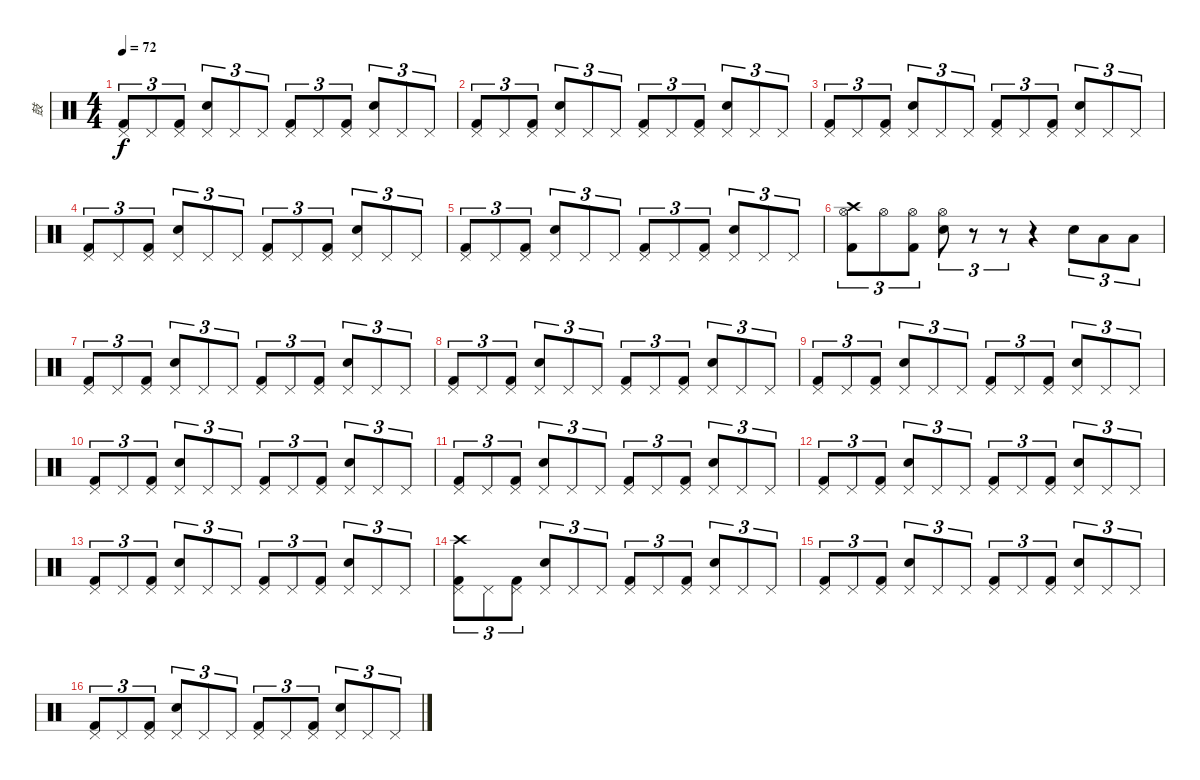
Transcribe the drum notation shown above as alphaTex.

\track ("鼓" "鼓") {instrument percussion}
\staff {score}
\articulation defaults
\ts (4 4)
\tempo 72
\clef neutral
\ks c
("Pedal Hi-Hat (hit)" "Kick (hit) 2").8{tu (3 2) dy f} "Pedal Hi-Hat (hit)".8{tu (3 2)} ("Pedal Hi-Hat (hit)" "Kick (hit) 2").8{tu (3 2)} ("Pedal Hi-Hat (hit)" "Electric Snare (hit)").8{tu (3 2)} "Pedal Hi-Hat (hit)".8{tu (3 2)} "Pedal Hi-Hat (hit)".8{tu (3 2)} ("Pedal Hi-Hat (hit)" "Kick (hit) 2").8{tu (3 2)} "Pedal Hi-Hat (hit)".8{tu (3 2)} ("Pedal Hi-Hat (hit)" "Kick (hit) 2").8{tu (3 2)} ("Pedal Hi-Hat (hit)" "Electric Snare (hit)").8{tu (3 2)} "Pedal Hi-Hat (hit)".8{tu (3 2)} "Pedal Hi-Hat (hit)".8{tu (3 2)} |
("Pedal Hi-Hat (hit)" "Kick (hit) 2").8{tu (3 2)} "Pedal Hi-Hat (hit)".8{tu (3 2)} ("Pedal Hi-Hat (hit)" "Kick (hit) 2").8{tu (3 2)} ("Pedal Hi-Hat (hit)" "Electric Snare (hit)").8{tu (3 2)} "Pedal Hi-Hat (hit)".8{tu (3 2)} "Pedal Hi-Hat (hit)".8{tu (3 2)} ("Pedal Hi-Hat (hit)" "Kick (hit) 2").8{tu (3 2)} "Pedal Hi-Hat (hit)".8{tu (3 2)} ("Pedal Hi-Hat (hit)" "Kick (hit) 2").8{tu (3 2)} ("Pedal Hi-Hat (hit)" "Electric Snare (hit)").8{tu (3 2)} "Pedal Hi-Hat (hit)".8{tu (3 2)} "Pedal Hi-Hat (hit)".8{tu (3 2)} |
("Pedal Hi-Hat (hit)" "Kick (hit) 2").8{tu (3 2)} "Pedal Hi-Hat (hit)".8{tu (3 2)} ("Pedal Hi-Hat (hit)" "Kick (hit) 2").8{tu (3 2)} ("Pedal Hi-Hat (hit)" "Electric Snare (hit)").8{tu (3 2)} "Pedal Hi-Hat (hit)".8{tu (3 2)} "Pedal Hi-Hat (hit)".8{tu (3 2)} ("Pedal Hi-Hat (hit)" "Kick (hit) 2").8{tu (3 2)} "Pedal Hi-Hat (hit)".8{tu (3 2)} ("Pedal Hi-Hat (hit)" "Kick (hit) 2").8{tu (3 2)} ("Pedal Hi-Hat (hit)" "Electric Snare (hit)").8{tu (3 2)} "Pedal Hi-Hat (hit)".8{tu (3 2)} "Pedal Hi-Hat (hit)".8{tu (3 2)} |
("Pedal Hi-Hat (hit)" "Kick (hit) 2").8{tu (3 2)} "Pedal Hi-Hat (hit)".8{tu (3 2)} ("Pedal Hi-Hat (hit)" "Kick (hit) 2").8{tu (3 2)} ("Pedal Hi-Hat (hit)" "Electric Snare (hit)").8{tu (3 2)} "Pedal Hi-Hat (hit)".8{tu (3 2)} "Pedal Hi-Hat (hit)".8{tu (3 2)} ("Pedal Hi-Hat (hit)" "Kick (hit) 2").8{tu (3 2)} "Pedal Hi-Hat (hit)".8{tu (3 2)} ("Pedal Hi-Hat (hit)" "Kick (hit) 2").8{tu (3 2)} ("Pedal Hi-Hat (hit)" "Electric Snare (hit)").8{tu (3 2)} "Pedal Hi-Hat (hit)".8{tu (3 2)} "Pedal Hi-Hat (hit)".8{tu (3 2)} |
("Pedal Hi-Hat (hit)" "Kick (hit) 2").8{tu (3 2)} "Pedal Hi-Hat (hit)".8{tu (3 2)} ("Pedal Hi-Hat (hit)" "Kick (hit) 2").8{tu (3 2)} ("Pedal Hi-Hat (hit)" "Electric Snare (hit)").8{tu (3 2)} "Pedal Hi-Hat (hit)".8{tu (3 2)} "Pedal Hi-Hat (hit)".8{tu (3 2)} ("Pedal Hi-Hat (hit)" "Kick (hit) 2").8{tu (3 2)} "Pedal Hi-Hat (hit)".8{tu (3 2)} ("Pedal Hi-Hat (hit)" "Kick (hit) 2").8{tu (3 2)} ("Pedal Hi-Hat (hit)" "Electric Snare (hit)").8{tu (3 2)} "Pedal Hi-Hat (hit)".8{tu (3 2)} "Pedal Hi-Hat (hit)".8{tu (3 2)} |
("Hi-Hat (open)" "Kick (hit) 2" "Crash high (hit)").8{tu (3 2)} "Hi-Hat (open)".8{tu (3 2)} ("Hi-Hat (open)" "Kick (hit) 2").8{tu (3 2)} ("Hi-Hat (open)" "Electric Snare (hit)").8{tu (3 2)} r.8{tu (3 2)} r.8{tu (3 2)} r.4 "Electric Snare (hit)".8{tu (3 2)} "Low Tom (hit)".8{tu (3 2)} "Low Tom (hit)".8{tu (3 2)} |
("Pedal Hi-Hat (hit)" "Kick (hit) 2").8{tu (3 2)} "Pedal Hi-Hat (hit)".8{tu (3 2)} ("Pedal Hi-Hat (hit)" "Kick (hit) 2").8{tu (3 2)} ("Pedal Hi-Hat (hit)" "Electric Snare (hit)").8{tu (3 2)} "Pedal Hi-Hat (hit)".8{tu (3 2)} "Pedal Hi-Hat (hit)".8{tu (3 2)} ("Pedal Hi-Hat (hit)" "Kick (hit) 2").8{tu (3 2)} "Pedal Hi-Hat (hit)".8{tu (3 2)} ("Pedal Hi-Hat (hit)" "Kick (hit) 2").8{tu (3 2)} ("Pedal Hi-Hat (hit)" "Electric Snare (hit)").8{tu (3 2)} "Pedal Hi-Hat (hit)".8{tu (3 2)} "Pedal Hi-Hat (hit)".8{tu (3 2)} |
("Pedal Hi-Hat (hit)" "Kick (hit) 2").8{tu (3 2)} "Pedal Hi-Hat (hit)".8{tu (3 2)} ("Pedal Hi-Hat (hit)" "Kick (hit) 2").8{tu (3 2)} ("Pedal Hi-Hat (hit)" "Electric Snare (hit)").8{tu (3 2)} "Pedal Hi-Hat (hit)".8{tu (3 2)} "Pedal Hi-Hat (hit)".8{tu (3 2)} ("Pedal Hi-Hat (hit)" "Kick (hit) 2").8{tu (3 2)} "Pedal Hi-Hat (hit)".8{tu (3 2)} ("Pedal Hi-Hat (hit)" "Kick (hit) 2").8{tu (3 2)} ("Pedal Hi-Hat (hit)" "Electric Snare (hit)").8{tu (3 2)} "Pedal Hi-Hat (hit)".8{tu (3 2)} "Pedal Hi-Hat (hit)".8{tu (3 2)} |
("Pedal Hi-Hat (hit)" "Kick (hit) 2").8{tu (3 2)} "Pedal Hi-Hat (hit)".8{tu (3 2)} ("Pedal Hi-Hat (hit)" "Kick (hit) 2").8{tu (3 2)} ("Pedal Hi-Hat (hit)" "Electric Snare (hit)").8{tu (3 2)} "Pedal Hi-Hat (hit)".8{tu (3 2)} "Pedal Hi-Hat (hit)".8{tu (3 2)} ("Pedal Hi-Hat (hit)" "Kick (hit) 2").8{tu (3 2)} "Pedal Hi-Hat (hit)".8{tu (3 2)} ("Pedal Hi-Hat (hit)" "Kick (hit) 2").8{tu (3 2)} ("Pedal Hi-Hat (hit)" "Electric Snare (hit)").8{tu (3 2)} "Pedal Hi-Hat (hit)".8{tu (3 2)} "Pedal Hi-Hat (hit)".8{tu (3 2)} |
("Pedal Hi-Hat (hit)" "Kick (hit) 2").8{tu (3 2)} "Pedal Hi-Hat (hit)".8{tu (3 2)} ("Pedal Hi-Hat (hit)" "Kick (hit) 2").8{tu (3 2)} ("Pedal Hi-Hat (hit)" "Electric Snare (hit)").8{tu (3 2)} "Pedal Hi-Hat (hit)".8{tu (3 2)} "Pedal Hi-Hat (hit)".8{tu (3 2)} ("Pedal Hi-Hat (hit)" "Kick (hit) 2").8{tu (3 2)} "Pedal Hi-Hat (hit)".8{tu (3 2)} ("Pedal Hi-Hat (hit)" "Kick (hit) 2").8{tu (3 2)} ("Pedal Hi-Hat (hit)" "Electric Snare (hit)").8{tu (3 2)} "Pedal Hi-Hat (hit)".8{tu (3 2)} "Pedal Hi-Hat (hit)".8{tu (3 2)} |
("Pedal Hi-Hat (hit)" "Kick (hit) 2").8{tu (3 2)} "Pedal Hi-Hat (hit)".8{tu (3 2)} ("Pedal Hi-Hat (hit)" "Kick (hit) 2").8{tu (3 2)} ("Pedal Hi-Hat (hit)" "Electric Snare (hit)").8{tu (3 2)} "Pedal Hi-Hat (hit)".8{tu (3 2)} "Pedal Hi-Hat (hit)".8{tu (3 2)} ("Pedal Hi-Hat (hit)" "Kick (hit) 2").8{tu (3 2)} "Pedal Hi-Hat (hit)".8{tu (3 2)} ("Pedal Hi-Hat (hit)" "Kick (hit) 2").8{tu (3 2)} ("Pedal Hi-Hat (hit)" "Electric Snare (hit)").8{tu (3 2)} "Pedal Hi-Hat (hit)".8{tu (3 2)} "Pedal Hi-Hat (hit)".8{tu (3 2)} |
("Pedal Hi-Hat (hit)" "Kick (hit) 2").8{tu (3 2)} "Pedal Hi-Hat (hit)".8{tu (3 2)} ("Pedal Hi-Hat (hit)" "Kick (hit) 2").8{tu (3 2)} ("Pedal Hi-Hat (hit)" "Electric Snare (hit)").8{tu (3 2)} "Pedal Hi-Hat (hit)".8{tu (3 2)} "Pedal Hi-Hat (hit)".8{tu (3 2)} ("Pedal Hi-Hat (hit)" "Kick (hit) 2").8{tu (3 2)} "Pedal Hi-Hat (hit)".8{tu (3 2)} ("Pedal Hi-Hat (hit)" "Kick (hit) 2").8{tu (3 2)} ("Pedal Hi-Hat (hit)" "Electric Snare (hit)").8{tu (3 2)} "Pedal Hi-Hat (hit)".8{tu (3 2)} "Pedal Hi-Hat (hit)".8{tu (3 2)} |
("Pedal Hi-Hat (hit)" "Kick (hit) 2").8{tu (3 2)} "Pedal Hi-Hat (hit)".8{tu (3 2)} ("Pedal Hi-Hat (hit)" "Kick (hit) 2").8{tu (3 2)} ("Pedal Hi-Hat (hit)" "Electric Snare (hit)").8{tu (3 2)} "Pedal Hi-Hat (hit)".8{tu (3 2)} "Pedal Hi-Hat (hit)".8{tu (3 2)} ("Pedal Hi-Hat (hit)" "Kick (hit) 2").8{tu (3 2)} "Pedal Hi-Hat (hit)".8{tu (3 2)} ("Pedal Hi-Hat (hit)" "Kick (hit) 2").8{tu (3 2)} ("Pedal Hi-Hat (hit)" "Electric Snare (hit)").8{tu (3 2)} "Pedal Hi-Hat (hit)".8{tu (3 2)} "Pedal Hi-Hat (hit)".8{tu (3 2)} |
("Pedal Hi-Hat (hit)" "Kick (hit) 2" "Crash high (hit)").8{tu (3 2)} "Pedal Hi-Hat (hit)".8{tu (3 2)} ("Pedal Hi-Hat (hit)" "Kick (hit) 2").8{tu (3 2)} ("Pedal Hi-Hat (hit)" "Electric Snare (hit)").8{tu (3 2)} "Pedal Hi-Hat (hit)".8{tu (3 2)} "Pedal Hi-Hat (hit)".8{tu (3 2)} ("Pedal Hi-Hat (hit)" "Kick (hit) 2").8{tu (3 2)} "Pedal Hi-Hat (hit)".8{tu (3 2)} ("Pedal Hi-Hat (hit)" "Kick (hit) 2").8{tu (3 2)} ("Pedal Hi-Hat (hit)" "Electric Snare (hit)").8{tu (3 2)} "Pedal Hi-Hat (hit)".8{tu (3 2)} "Pedal Hi-Hat (hit)".8{tu (3 2)} |
("Pedal Hi-Hat (hit)" "Kick (hit) 2").8{tu (3 2)} "Pedal Hi-Hat (hit)".8{tu (3 2)} ("Pedal Hi-Hat (hit)" "Kick (hit) 2").8{tu (3 2)} ("Pedal Hi-Hat (hit)" "Electric Snare (hit)").8{tu (3 2)} "Pedal Hi-Hat (hit)".8{tu (3 2)} "Pedal Hi-Hat (hit)".8{tu (3 2)} ("Pedal Hi-Hat (hit)" "Kick (hit) 2").8{tu (3 2)} "Pedal Hi-Hat (hit)".8{tu (3 2)} ("Pedal Hi-Hat (hit)" "Kick (hit) 2").8{tu (3 2)} ("Pedal Hi-Hat (hit)" "Electric Snare (hit)").8{tu (3 2)} "Pedal Hi-Hat (hit)".8{tu (3 2)} "Pedal Hi-Hat (hit)".8{tu (3 2)} |
("Pedal Hi-Hat (hit)" "Kick (hit) 2").8{tu (3 2)} "Pedal Hi-Hat (hit)".8{tu (3 2)} ("Pedal Hi-Hat (hit)" "Kick (hit) 2").8{tu (3 2)} ("Pedal Hi-Hat (hit)" "Electric Snare (hit)").8{tu (3 2)} "Pedal Hi-Hat (hit)".8{tu (3 2)} "Pedal Hi-Hat (hit)".8{tu (3 2)} ("Pedal Hi-Hat (hit)" "Kick (hit) 2").8{tu (3 2)} "Pedal Hi-Hat (hit)".8{tu (3 2)} ("Pedal Hi-Hat (hit)" "Kick (hit) 2").8{tu (3 2)} ("Pedal Hi-Hat (hit)" "Electric Snare (hit)").8{tu (3 2)} "Pedal Hi-Hat (hit)".8{tu (3 2)} "Pedal Hi-Hat (hit)".8{tu (3 2)}
